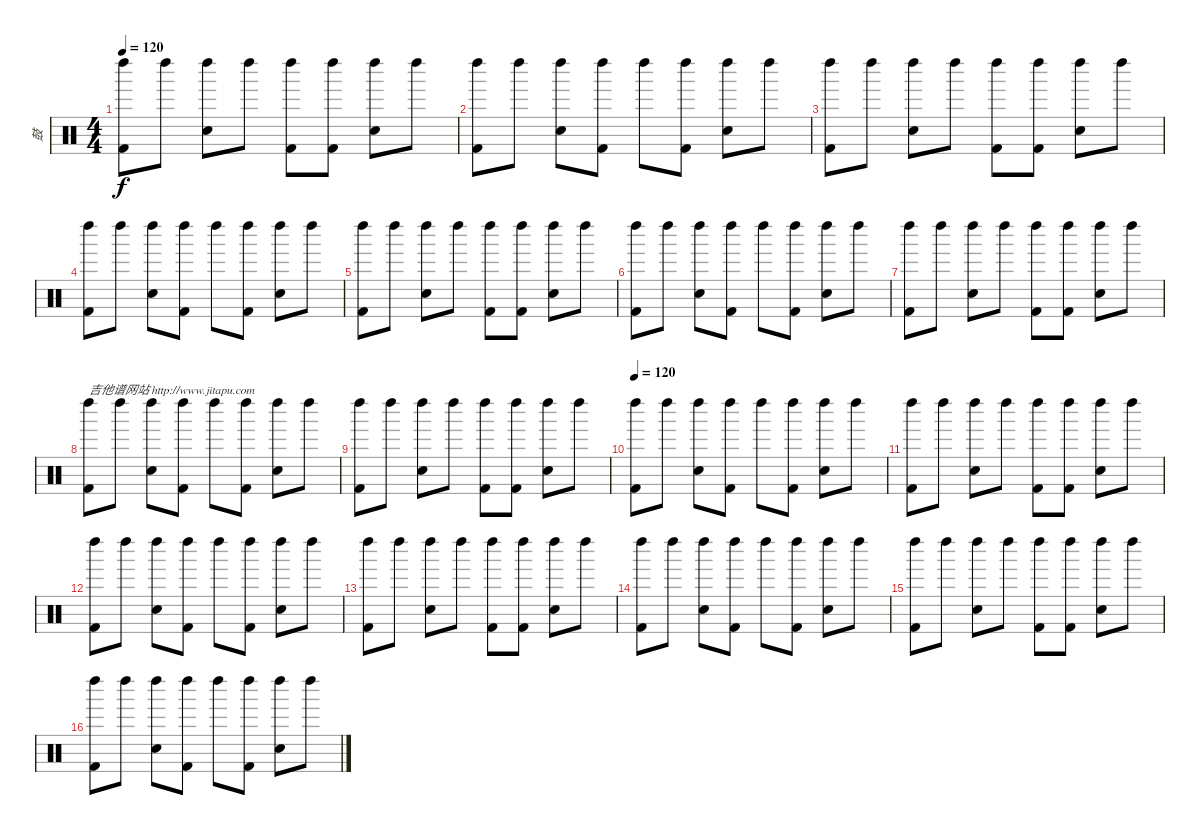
\track ("鼓" "鼓") {instrument percussion}
\staff {score}
\articulation defaults
\ts (4 4)
\tempo 120
\clef neutral
\ks c
("Left Maraca (hit)" "Kick (hit) 2").8{dy f} "Left Maraca (hit)".8 ("Left Maraca (hit)" "Snare (hit) 2").8 "Left Maraca (hit)".8 ("Left Maraca (hit)" "Kick (hit) 2").8 ("Left Maraca (hit)" "Kick (hit) 2").8 ("Left Maraca (hit)" "Snare (hit) 2").8 "Left Maraca (hit)".8 |
("Left Maraca (hit)" "Kick (hit) 2").8 "Left Maraca (hit)".8 ("Left Maraca (hit)" "Snare (hit) 2").8 ("Left Maraca (hit)" "Kick (hit) 2").8 "Left Maraca (hit)".8 ("Left Maraca (hit)" "Kick (hit) 2").8 ("Left Maraca (hit)" "Snare (hit) 2").8 "Left Maraca (hit)".8 |
("Left Maraca (hit)" "Kick (hit) 2").8 "Left Maraca (hit)".8 ("Left Maraca (hit)" "Snare (hit) 2").8 "Left Maraca (hit)".8 ("Left Maraca (hit)" "Kick (hit) 2").8 ("Left Maraca (hit)" "Kick (hit) 2").8 ("Left Maraca (hit)" "Snare (hit) 2").8 "Left Maraca (hit)".8 |
("Left Maraca (hit)" "Kick (hit) 2").8 "Left Maraca (hit)".8 ("Left Maraca (hit)" "Snare (hit) 2").8 ("Left Maraca (hit)" "Kick (hit) 2").8 "Left Maraca (hit)".8 ("Left Maraca (hit)" "Kick (hit) 2").8 ("Left Maraca (hit)" "Snare (hit) 2").8 "Left Maraca (hit)".8 |
("Left Maraca (hit)" "Kick (hit) 2").8 "Left Maraca (hit)".8 ("Left Maraca (hit)" "Snare (hit) 2").8 "Left Maraca (hit)".8 ("Left Maraca (hit)" "Kick (hit) 2").8 ("Left Maraca (hit)" "Kick (hit) 2").8 ("Left Maraca (hit)" "Snare (hit) 2").8 "Left Maraca (hit)".8 |
("Left Maraca (hit)" "Kick (hit) 2").8 "Left Maraca (hit)".8 ("Left Maraca (hit)" "Snare (hit) 2").8 ("Left Maraca (hit)" "Kick (hit) 2").8 "Left Maraca (hit)".8 ("Left Maraca (hit)" "Kick (hit) 2").8 ("Left Maraca (hit)" "Snare (hit) 2").8 "Left Maraca (hit)".8 |
("Left Maraca (hit)" "Kick (hit) 2").8 "Left Maraca (hit)".8 ("Left Maraca (hit)" "Snare (hit) 2").8 "Left Maraca (hit)".8 ("Left Maraca (hit)" "Kick (hit) 2").8 ("Left Maraca (hit)" "Kick (hit) 2").8 ("Left Maraca (hit)" "Snare (hit) 2").8 "Left Maraca (hit)".8 |
("Left Maraca (hit)" "Kick (hit) 2").8{txt "吉他谱网站 http://www.jitapu.com"} "Left Maraca (hit)".8 ("Left Maraca (hit)" "Snare (hit) 2").8 ("Left Maraca (hit)" "Kick (hit) 2").8 "Left Maraca (hit)".8 ("Left Maraca (hit)" "Kick (hit) 2").8 ("Left Maraca (hit)" "Snare (hit) 2").8 "Left Maraca (hit)".8 |
("Left Maraca (hit)" "Kick (hit) 2").8 "Left Maraca (hit)".8 ("Left Maraca (hit)" "Snare (hit) 2").8 "Left Maraca (hit)".8 ("Left Maraca (hit)" "Kick (hit) 2").8 ("Left Maraca (hit)" "Kick (hit) 2").8 ("Left Maraca (hit)" "Snare (hit) 2").8 "Left Maraca (hit)".8 |
\tempo 120
("Left Maraca (hit)" "Kick (hit) 2").8 "Left Maraca (hit)".8 ("Left Maraca (hit)" "Snare (hit) 2").8 ("Left Maraca (hit)" "Kick (hit) 2").8 "Left Maraca (hit)".8 ("Left Maraca (hit)" "Kick (hit) 2").8 ("Left Maraca (hit)" "Snare (hit) 2").8 "Left Maraca (hit)".8 |
("Left Maraca (hit)" "Kick (hit) 2").8 "Left Maraca (hit)".8 ("Left Maraca (hit)" "Snare (hit) 2").8 "Left Maraca (hit)".8 ("Left Maraca (hit)" "Kick (hit) 2").8 ("Left Maraca (hit)" "Kick (hit) 2").8 ("Left Maraca (hit)" "Snare (hit) 2").8 "Left Maraca (hit)".8 |
("Left Maraca (hit)" "Kick (hit) 2").8 "Left Maraca (hit)".8 ("Left Maraca (hit)" "Snare (hit) 2").8 ("Left Maraca (hit)" "Kick (hit) 2").8 "Left Maraca (hit)".8 ("Left Maraca (hit)" "Kick (hit) 2").8 ("Left Maraca (hit)" "Snare (hit) 2").8 "Left Maraca (hit)".8 |
("Left Maraca (hit)" "Kick (hit) 2").8 "Left Maraca (hit)".8 ("Left Maraca (hit)" "Snare (hit) 2").8 "Left Maraca (hit)".8 ("Left Maraca (hit)" "Kick (hit) 2").8 ("Left Maraca (hit)" "Kick (hit) 2").8 ("Left Maraca (hit)" "Snare (hit) 2").8 "Left Maraca (hit)".8 |
("Left Maraca (hit)" "Kick (hit) 2").8 "Left Maraca (hit)".8 ("Left Maraca (hit)" "Snare (hit) 2").8 ("Left Maraca (hit)" "Kick (hit) 2").8 "Left Maraca (hit)".8 ("Left Maraca (hit)" "Kick (hit) 2").8 ("Left Maraca (hit)" "Snare (hit) 2").8 "Left Maraca (hit)".8 |
("Left Maraca (hit)" "Kick (hit) 2").8 "Left Maraca (hit)".8 ("Left Maraca (hit)" "Snare (hit) 2").8 "Left Maraca (hit)".8 ("Left Maraca (hit)" "Kick (hit) 2").8 ("Left Maraca (hit)" "Kick (hit) 2").8 ("Left Maraca (hit)" "Snare (hit) 2").8 "Left Maraca (hit)".8 |
("Left Maraca (hit)" "Kick (hit) 2").8 "Left Maraca (hit)".8 ("Left Maraca (hit)" "Snare (hit) 2").8 ("Left Maraca (hit)" "Kick (hit) 2").8 "Left Maraca (hit)".8 ("Left Maraca (hit)" "Kick (hit) 2").8 ("Left Maraca (hit)" "Snare (hit) 2").8 "Left Maraca (hit)".8
